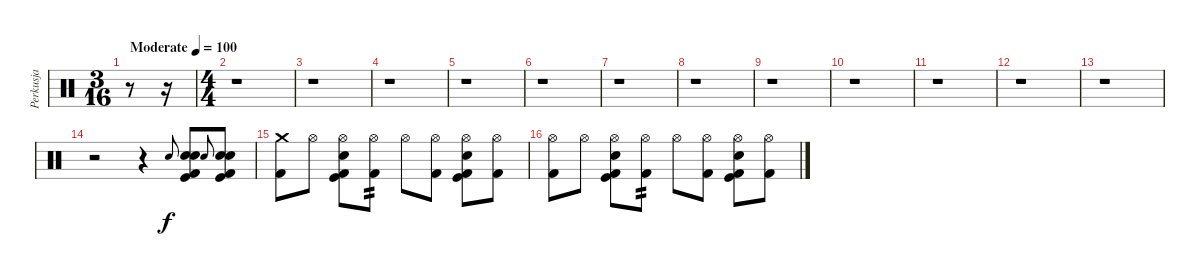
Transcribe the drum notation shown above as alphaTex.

\track ("Perkusja" "Perkusja") {instrument percussion}
\staff {score}
\articulation defaults
\ts (3 16)
\tempo (100 "Moderate")
\clef neutral
\ks c
r.8{dy f} r.16 |
\ts (4 4)
r.1 |
r.1 |
r.1 |
r.1 |
r.1 |
r.1 |
r.1 |
r.1 |
r.1 |
r.1 |
r.1 |
r.1 |
r.2 r.4 "Electric Snare (hit)".8{gr onbeat} ("Snare (hit) 2" "Electric Snare (hit)" "Kick (hit)" "Kick (hit) 2").8 "Electric Snare (hit)".8{gr onbeat} ("Snare (hit) 2" "Electric Snare (hit)" "Kick (hit)" "Kick (hit) 2").8 |
("Crash medium (hit)" "Kick (hit) 2").8 "Hi-Hat (open)".8 ("Hi-Hat (open)" "Electric Snare (hit)" "Kick (hit) 2" "Kick (hit)").8 ("Hi-Hat (open)" "Kick (hit) 2").8{tp 2} "Hi-Hat (open)".8 ("Hi-Hat (open)" "Kick (hit) 2").8 ("Hi-Hat (open)" "Electric Snare (hit)" "Kick (hit) 2" "Kick (hit)").8 ("Hi-Hat (open)" "Kick (hit) 2").8 |
("Hi-Hat (open)" "Kick (hit) 2").8 "Hi-Hat (open)".8 ("Hi-Hat (open)" "Electric Snare (hit)" "Kick (hit) 2" "Kick (hit)").8 ("Hi-Hat (open)" "Kick (hit) 2").8{tp 2} "Hi-Hat (open)".8 ("Hi-Hat (open)" "Kick (hit) 2").8 ("Hi-Hat (open)" "Electric Snare (hit)" "Kick (hit) 2" "Kick (hit)").8 ("Hi-Hat (open)" "Kick (hit) 2").8
